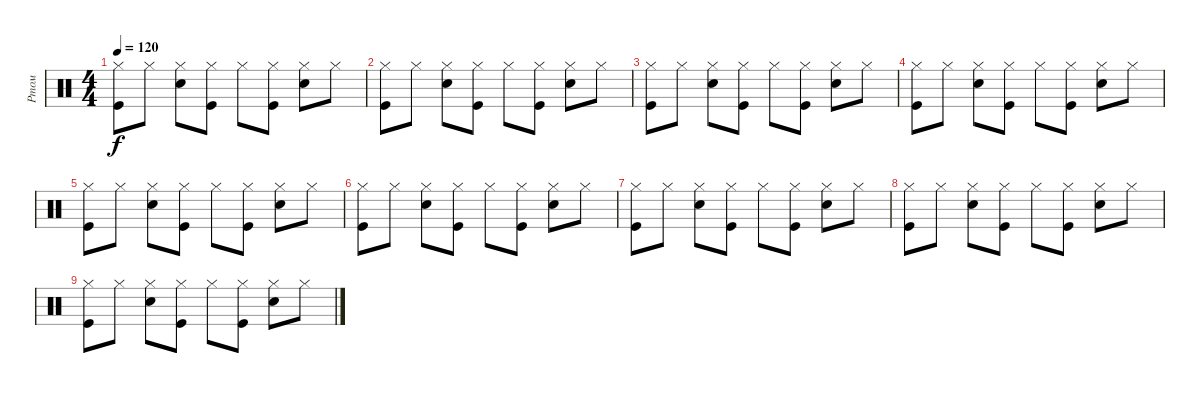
\track ("Ртом" "Ртом") {instrument percussion}
\staff {score}
\articulation defaults
\ts (4 4)
\tempo 120
\clef neutral
\ks c
("Hi-Hat (closed)" "Kick (hit)").8{dy f} "Hi-Hat (closed)".8 ("Hi-Hat (closed)" "Snare (hit) 2").8 ("Hi-Hat (closed)" "Kick (hit)").8 "Hi-Hat (closed)".8 ("Hi-Hat (closed)" "Kick (hit)").8 ("Hi-Hat (closed)" "Snare (hit) 2").8 "Hi-Hat (closed)".8 |
("Hi-Hat (closed)" "Kick (hit)").8 "Hi-Hat (closed)".8 ("Hi-Hat (closed)" "Snare (hit) 2").8 ("Hi-Hat (closed)" "Kick (hit)").8 "Hi-Hat (closed)".8 ("Hi-Hat (closed)" "Kick (hit)").8 ("Hi-Hat (closed)" "Snare (hit) 2").8 "Hi-Hat (closed)".8 |
("Hi-Hat (closed)" "Kick (hit)").8 "Hi-Hat (closed)".8 ("Hi-Hat (closed)" "Snare (hit) 2").8 ("Hi-Hat (closed)" "Kick (hit)").8 "Hi-Hat (closed)".8 ("Hi-Hat (closed)" "Kick (hit)").8 ("Hi-Hat (closed)" "Snare (hit) 2").8 "Hi-Hat (closed)".8 |
("Hi-Hat (closed)" "Kick (hit)").8 "Hi-Hat (closed)".8 ("Hi-Hat (closed)" "Snare (hit) 2").8 ("Hi-Hat (closed)" "Kick (hit)").8 "Hi-Hat (closed)".8 ("Hi-Hat (closed)" "Kick (hit)").8 ("Hi-Hat (closed)" "Snare (hit) 2").8 "Hi-Hat (closed)".8 |
("Hi-Hat (closed)" "Kick (hit)").8 "Hi-Hat (closed)".8 ("Hi-Hat (closed)" "Snare (hit) 2").8 ("Hi-Hat (closed)" "Kick (hit)").8 "Hi-Hat (closed)".8 ("Hi-Hat (closed)" "Kick (hit)").8 ("Hi-Hat (closed)" "Snare (hit) 2").8 "Hi-Hat (closed)".8 |
("Hi-Hat (closed)" "Kick (hit)").8 "Hi-Hat (closed)".8 ("Hi-Hat (closed)" "Snare (hit) 2").8 ("Hi-Hat (closed)" "Kick (hit)").8 "Hi-Hat (closed)".8 ("Hi-Hat (closed)" "Kick (hit)").8 ("Hi-Hat (closed)" "Snare (hit) 2").8 "Hi-Hat (closed)".8 |
("Hi-Hat (closed)" "Kick (hit)").8 "Hi-Hat (closed)".8 ("Hi-Hat (closed)" "Snare (hit) 2").8 ("Hi-Hat (closed)" "Kick (hit)").8 "Hi-Hat (closed)".8 ("Hi-Hat (closed)" "Kick (hit)").8 ("Hi-Hat (closed)" "Snare (hit) 2").8 "Hi-Hat (closed)".8 |
("Hi-Hat (closed)" "Kick (hit)").8 "Hi-Hat (closed)".8 ("Hi-Hat (closed)" "Snare (hit) 2").8 ("Hi-Hat (closed)" "Kick (hit)").8 "Hi-Hat (closed)".8 ("Hi-Hat (closed)" "Kick (hit)").8 ("Hi-Hat (closed)" "Snare (hit) 2").8 "Hi-Hat (closed)".8 |
("Hi-Hat (closed)" "Kick (hit)").8 "Hi-Hat (closed)".8 ("Hi-Hat (closed)" "Snare (hit) 2").8 ("Hi-Hat (closed)" "Kick (hit)").8 "Hi-Hat (closed)".8 ("Hi-Hat (closed)" "Kick (hit)").8 ("Hi-Hat (closed)" "Snare (hit) 2").8 "Hi-Hat (closed)".8
